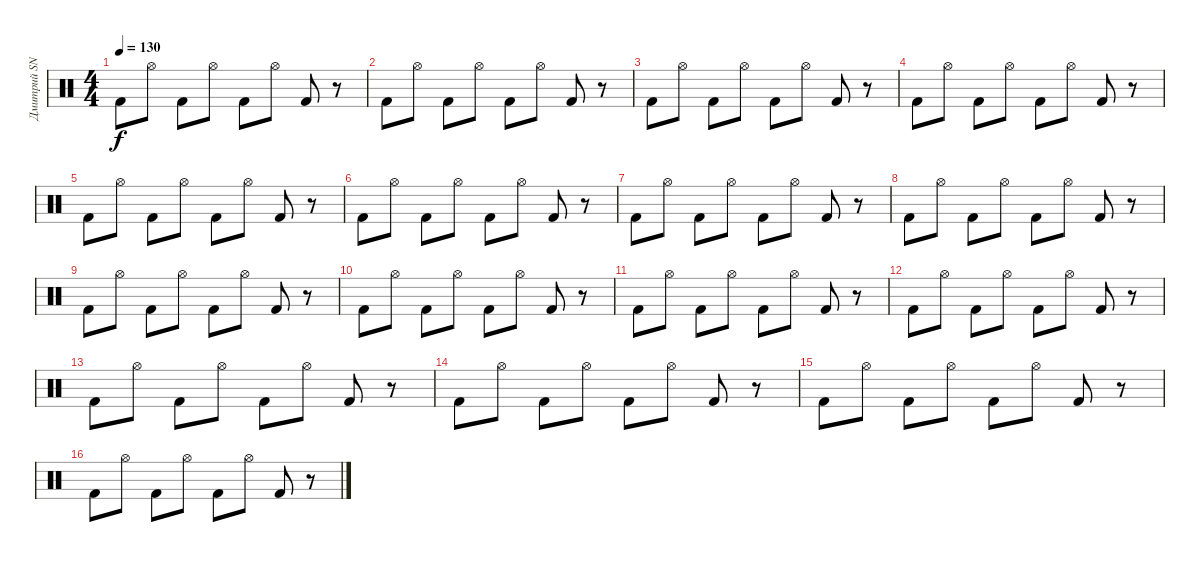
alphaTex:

\track ("Дмитрий SNAKE Хакимов (ударные)" "Дмитрий SN") {instrument percussion}
\staff {score}
\articulation defaults
\ts (4 4)
\tempo 130
\clef neutral
\ks c "Kick (hit) 2".8{dy f} "Hi-Hat (open)".8 "Kick (hit) 2".8 "Hi-Hat (open)".8 "Kick (hit) 2".8 "Hi-Hat (open)".8 "Kick (hit) 2".8
r.8 |
"Kick (hit) 2".8 "Hi-Hat (open)".8 "Kick (hit) 2".8 "Hi-Hat (open)".8 "Kick (hit) 2".8 "Hi-Hat (open)".8 "Kick (hit) 2".8 r.8 |
"Kick (hit) 2".8 "Hi-Hat (open)".8 "Kick (hit) 2".8 "Hi-Hat (open)".8 "Kick (hit) 2".8 "Hi-Hat (open)".8 "Kick (hit) 2".8 r.8 |
"Kick (hit) 2".8 "Hi-Hat (open)".8 "Kick (hit) 2".8 "Hi-Hat (open)".8 "Kick (hit) 2".8 "Hi-Hat (open)".8 "Kick (hit) 2".8 r.8 |
"Kick (hit) 2".8 "Hi-Hat (open)".8 "Kick (hit) 2".8 "Hi-Hat (open)".8 "Kick (hit) 2".8 "Hi-Hat (open)".8 "Kick (hit) 2".8 r.8 |
"Kick (hit) 2".8 "Hi-Hat (open)".8 "Kick (hit) 2".8 "Hi-Hat (open)".8 "Kick (hit) 2".8 "Hi-Hat (open)".8 "Kick (hit) 2".8 r.8 |
"Kick (hit) 2".8 "Hi-Hat (open)".8 "Kick (hit) 2".8 "Hi-Hat (open)".8 "Kick (hit) 2".8 "Hi-Hat (open)".8 "Kick (hit) 2".8 r.8 |
"Kick (hit) 2".8 "Hi-Hat (open)".8 "Kick (hit) 2".8 "Hi-Hat (open)".8 "Kick (hit) 2".8 "Hi-Hat (open)".8 "Kick (hit) 2".8 r.8 |
"Kick (hit) 2".8 "Hi-Hat (open)".8 "Kick (hit) 2".8 "Hi-Hat (open)".8 "Kick (hit) 2".8 "Hi-Hat (open)".8 "Kick (hit) 2".8 r.8 |
"Kick (hit) 2".8 "Hi-Hat (open)".8 "Kick (hit) 2".8 "Hi-Hat (open)".8 "Kick (hit) 2".8 "Hi-Hat (open)".8 "Kick (hit) 2".8 r.8 |
"Kick (hit) 2".8 "Hi-Hat (open)".8 "Kick (hit) 2".8 "Hi-Hat (open)".8 "Kick (hit) 2".8 "Hi-Hat (open)".8 "Kick (hit) 2".8 r.8 |
"Kick (hit) 2".8 "Hi-Hat (open)".8 "Kick (hit) 2".8 "Hi-Hat (open)".8 "Kick (hit) 2".8 "Hi-Hat (open)".8 "Kick (hit) 2".8 r.8 |
"Kick (hit) 2".8 "Hi-Hat (open)".8 "Kick (hit) 2".8 "Hi-Hat (open)".8 "Kick (hit) 2".8 "Hi-Hat (open)".8 "Kick (hit) 2".8 r.8 |
"Kick (hit) 2".8 "Hi-Hat (open)".8 "Kick (hit) 2".8 "Hi-Hat (open)".8 "Kick (hit) 2".8 "Hi-Hat (open)".8 "Kick (hit) 2".8 r.8 |
"Kick (hit) 2".8 "Hi-Hat (open)".8 "Kick (hit) 2".8 "Hi-Hat (open)".8 "Kick (hit) 2".8 "Hi-Hat (open)".8 "Kick (hit) 2".8 r.8 |
"Kick (hit) 2".8 "Hi-Hat (open)".8 "Kick (hit) 2".8 "Hi-Hat (open)".8 "Kick (hit) 2".8 "Hi-Hat (open)".8 "Kick (hit) 2".8 r.8
